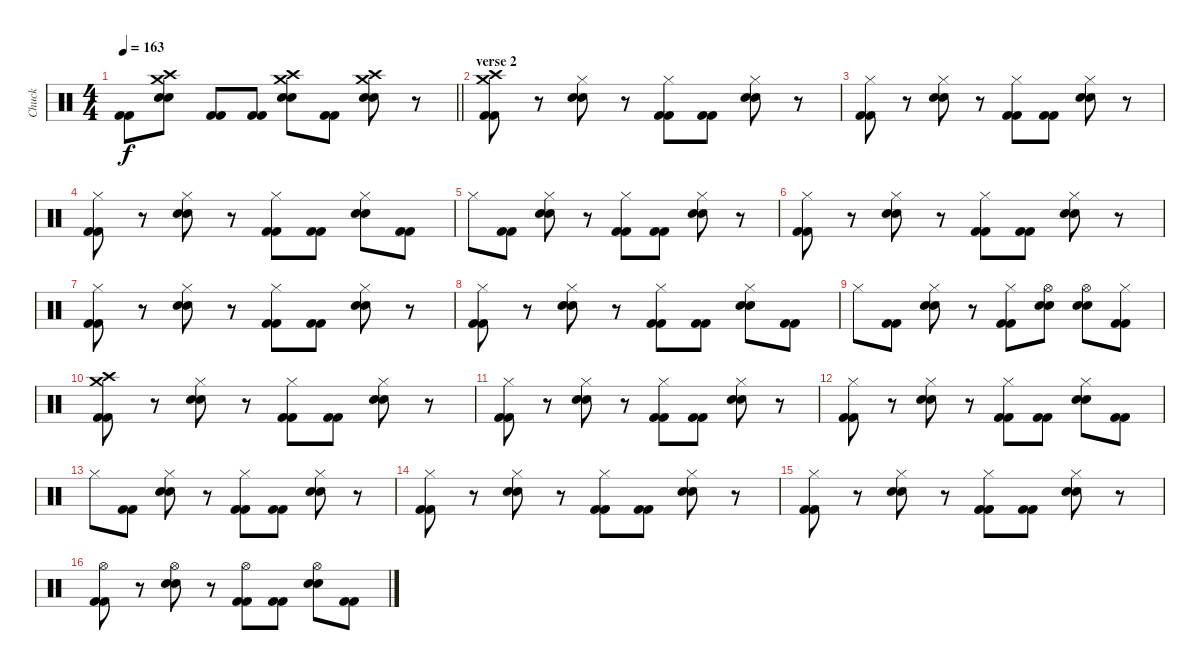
\track ("Chuck" "Chuck") {instrument percussion}
\staff {score}
\articulation defaults
\ts (4 4)
\tempo 163
\clef neutral
\barLineRight lightlight
\ks c
("Kick (hit) 2" "Kick (hit) 2").8{dy f} ("Crash medium (hit)" "Crash high (hit)" "Snare (hit) 2" "Snare (hit) 2").8 ("Kick (hit) 2" "Kick (hit) 2").8 ("Kick (hit) 2" "Kick (hit) 2").8 ("Crash medium (hit)" "Crash high (hit)" "Snare (hit) 2" "Snare (hit) 2").8 ("Kick (hit) 2" "Kick (hit) 2").8 ("Crash medium (hit)" "Crash high (hit)" "Snare (hit) 2" "Snare (hit) 2").8 r.8 |
\section ("" "verse 2")
("Crash medium (hit)" "Crash high (hit)" "Kick (hit) 2" "Kick (hit) 2").8 r.8 ("Hi-Hat (closed)" "Snare (hit) 2" "Snare (hit) 2").8 r.8 ("Hi-Hat (closed)" "Kick (hit) 2" "Kick (hit) 2").8 ("Kick (hit) 2" "Kick (hit) 2").8 ("Hi-Hat (closed)" "Snare (hit) 2" "Snare (hit) 2").8 r.8 |
("Hi-Hat (closed)" "Kick (hit) 2" "Kick (hit) 2").8 r.8 ("Hi-Hat (closed)" "Snare (hit) 2" "Snare (hit) 2").8 r.8 ("Hi-Hat (closed)" "Kick (hit) 2" "Kick (hit) 2").8 ("Kick (hit) 2" "Kick (hit) 2").8 ("Hi-Hat (closed)" "Snare (hit) 2" "Snare (hit) 2").8 r.8 |
("Hi-Hat (closed)" "Kick (hit) 2" "Kick (hit) 2").8 r.8 ("Hi-Hat (closed)" "Snare (hit) 2" "Snare (hit) 2").8 r.8 ("Hi-Hat (closed)" "Kick (hit) 2" "Kick (hit) 2").8 ("Kick (hit) 2" "Kick (hit) 2").8 ("Hi-Hat (closed)" "Snare (hit) 2" "Snare (hit) 2").8 ("Kick (hit) 2" "Kick (hit) 2").8 |
"Hi-Hat (closed)".8 ("Kick (hit) 2" "Kick (hit) 2").8 ("Hi-Hat (closed)" "Snare (hit) 2" "Snare (hit) 2").8 r.8 ("Hi-Hat (closed)" "Kick (hit) 2" "Kick (hit) 2").8 ("Kick (hit) 2" "Kick (hit) 2").8 ("Hi-Hat (closed)" "Snare (hit) 2" "Snare (hit) 2").8 r.8 |
("Hi-Hat (closed)" "Kick (hit) 2" "Kick (hit) 2").8 r.8 ("Hi-Hat (closed)" "Snare (hit) 2" "Snare (hit) 2").8 r.8 ("Hi-Hat (closed)" "Kick (hit) 2" "Kick (hit) 2").8 ("Kick (hit) 2" "Kick (hit) 2").8 ("Hi-Hat (closed)" "Snare (hit) 2" "Snare (hit) 2").8 r.8 |
("Hi-Hat (closed)" "Kick (hit) 2" "Kick (hit) 2").8 r.8 ("Hi-Hat (closed)" "Snare (hit) 2" "Snare (hit) 2").8 r.8 ("Hi-Hat (closed)" "Kick (hit) 2" "Kick (hit) 2").8 ("Kick (hit) 2" "Kick (hit) 2").8 ("Hi-Hat (closed)" "Snare (hit) 2" "Snare (hit) 2").8 r.8 |
("Hi-Hat (closed)" "Kick (hit) 2" "Kick (hit) 2").8 r.8 ("Hi-Hat (closed)" "Snare (hit) 2" "Snare (hit) 2").8 r.8 ("Hi-Hat (closed)" "Kick (hit) 2" "Kick (hit) 2").8 ("Kick (hit) 2" "Kick (hit) 2").8 ("Hi-Hat (closed)" "Snare (hit) 2" "Snare (hit) 2").8 ("Kick (hit) 2" "Kick (hit) 2").8 |
"Hi-Hat (closed)".8 ("Kick (hit) 2" "Kick (hit) 2").8 ("Hi-Hat (closed)" "Snare (hit) 2" "Snare (hit) 2").8 r.8 ("Hi-Hat (closed)" "Kick (hit) 2" "Kick (hit) 2").8 ("Hi-Hat (open)" "Snare (hit) 2" "Snare (hit) 2").8 ("Hi-Hat (open)" "Snare (hit) 2" "Snare (hit) 2").8 ("Hi-Hat (closed)" "Kick (hit) 2" "Kick (hit) 2").8 |
("Crash medium (hit)" "Crash high (hit)" "Kick (hit) 2" "Kick (hit) 2").8 r.8 ("Hi-Hat (closed)" "Snare (hit) 2" "Snare (hit) 2").8 r.8 ("Hi-Hat (closed)" "Kick (hit) 2" "Kick (hit) 2").8 ("Kick (hit) 2" "Kick (hit) 2").8 ("Hi-Hat (closed)" "Snare (hit) 2" "Snare (hit) 2").8 r.8 |
("Hi-Hat (closed)" "Kick (hit) 2" "Kick (hit) 2").8 r.8 ("Hi-Hat (closed)" "Snare (hit) 2" "Snare (hit) 2").8 r.8 ("Hi-Hat (closed)" "Kick (hit) 2" "Kick (hit) 2").8 ("Kick (hit) 2" "Kick (hit) 2").8 ("Hi-Hat (closed)" "Snare (hit) 2" "Snare (hit) 2").8 r.8 |
("Hi-Hat (closed)" "Kick (hit) 2" "Kick (hit) 2").8 r.8 ("Hi-Hat (closed)" "Snare (hit) 2" "Snare (hit) 2").8 r.8 ("Hi-Hat (closed)" "Kick (hit) 2" "Kick (hit) 2").8 ("Kick (hit) 2" "Kick (hit) 2").8 ("Hi-Hat (closed)" "Snare (hit) 2" "Snare (hit) 2").8 ("Kick (hit) 2" "Kick (hit) 2").8 |
"Hi-Hat (closed)".8 ("Kick (hit) 2" "Kick (hit) 2").8 ("Hi-Hat (closed)" "Snare (hit) 2" "Snare (hit) 2").8 r.8 ("Hi-Hat (closed)" "Kick (hit) 2" "Kick (hit) 2").8 ("Kick (hit) 2" "Kick (hit) 2").8 ("Hi-Hat (closed)" "Snare (hit) 2" "Snare (hit) 2").8 r.8 |
("Hi-Hat (closed)" "Kick (hit) 2" "Kick (hit) 2").8 r.8 ("Hi-Hat (closed)" "Snare (hit) 2" "Snare (hit) 2").8 r.8 ("Hi-Hat (closed)" "Kick (hit) 2" "Kick (hit) 2").8 ("Kick (hit) 2" "Kick (hit) 2").8 ("Hi-Hat (closed)" "Snare (hit) 2" "Snare (hit) 2").8 r.8 |
("Hi-Hat (closed)" "Kick (hit) 2" "Kick (hit) 2").8 r.8 ("Hi-Hat (closed)" "Snare (hit) 2" "Snare (hit) 2").8 r.8 ("Hi-Hat (closed)" "Kick (hit) 2" "Kick (hit) 2").8 ("Kick (hit) 2" "Kick (hit) 2").8 ("Hi-Hat (closed)" "Snare (hit) 2" "Snare (hit) 2").8 r.8 |
("Hi-Hat (open)" "Kick (hit) 2" "Kick (hit) 2").8 r.8 ("Hi-Hat (open)" "Snare (hit) 2" "Snare (hit) 2").8 r.8 ("Hi-Hat (open)" "Kick (hit) 2" "Kick (hit) 2").8 ("Kick (hit) 2" "Kick (hit) 2").8 ("Hi-Hat (open)" "Snare (hit) 2" "Snare (hit) 2").8 ("Kick (hit) 2" "Kick (hit) 2").8
